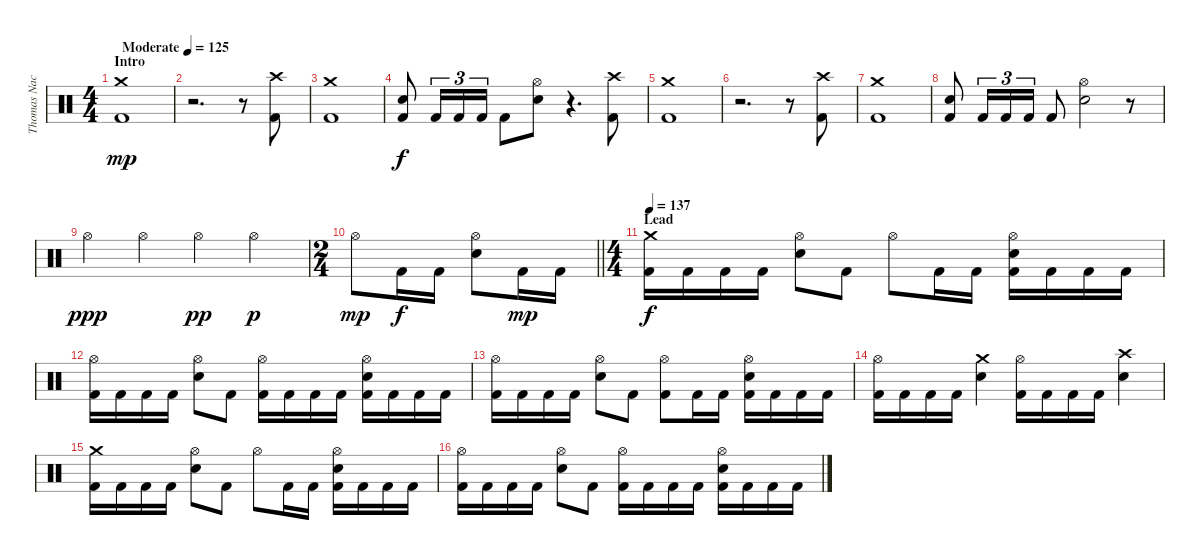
\track ("Thomas Nack" "Thomas Nac") {instrument percussion}
\staff {score}
\articulation defaults
\ts (4 4)
\section ("" "Intro")
\tempo (125 "Moderate")
\clef neutral
\ks c
("Crash medium (hit)" "Kick (hit) 2").1{dy mp} |
r.2{d} r.8 ("Crash high (hit)" "Kick (hit) 2").8 |
("Crash medium (hit)" "Kick (hit) 2").1 |
("Electric Snare (hit)" "Kick (hit) 2").8{dy f} "Kick (hit) 2".16{tu (3 2)} "Kick (hit) 2".16{tu (3 2)} "Kick (hit) 2".16{tu (3 2)} "Kick (hit) 2".8 ("Hi-Hat (open)" "Electric Snare (hit)").8 r.4{d} ("Crash high (hit)" "Kick (hit) 2").8 |
("Crash medium (hit)" "Kick (hit) 2").1 |
r.2{d} r.8 ("Crash high (hit)" "Kick (hit) 2").8 |
("Crash medium (hit)" "Kick (hit) 2").1 |
("Electric Snare (hit)" "Kick (hit) 2").8 "Kick (hit) 2".16{tu (3 2)} "Kick (hit) 2".16{tu (3 2)} "Kick (hit) 2".16{tu (3 2)} "Kick (hit) 2".8 ("Hi-Hat (open)" "Electric Snare (hit)").2 r.8 |
"Hi-Hat (open)".4{dy ppp} "Hi-Hat (open)".4 "Hi-Hat (open)".4{dy pp} "Hi-Hat (open)".4{dy p} |
\ts (2 4)
\barLineRight lightlight "Hi-Hat (open)".8{dy mp} "Kick (hit) 2".16{dy f} "Kick (hit) 2".16
("Hi-Hat (open)" "Electric Snare (hit)").8 "Kick (hit) 2".16{dy mp} "Kick (hit) 2".16 |
\ts (4 4)
\section ("" "Lead")
\tempo 137
("Crash medium (hit)" "Kick (hit) 2").16{dy f} "Kick (hit) 2".16 "Kick (hit) 2".16 "Kick (hit) 2".16 ("Hi-Hat (open)" "Electric Snare (hit)").8 "Kick (hit) 2".8 "Hi-Hat (open)".8 "Kick (hit) 2".16 "Kick (hit) 2".16 ("Hi-Hat (open)" "Electric Snare (hit)" "Kick (hit) 2").16 "Kick (hit) 2".16 "Kick (hit) 2".16 "Kick (hit) 2".16 |
("Hi-Hat (open)" "Kick (hit) 2").16 "Kick (hit) 2".16 "Kick (hit) 2".16 "Kick (hit) 2".16 ("Hi-Hat (open)" "Electric Snare (hit)").8 "Kick (hit) 2".8 ("Hi-Hat (open)" "Kick (hit) 2").16 "Kick (hit) 2".16 "Kick (hit) 2".16 "Kick (hit) 2".16 ("Hi-Hat (open)" "Electric Snare (hit)" "Kick (hit) 2").16 "Kick (hit) 2".16 "Kick (hit) 2".16 "Kick (hit) 2".16 |
("Hi-Hat (open)" "Kick (hit) 2").16 "Kick (hit) 2".16 "Kick (hit) 2".16 "Kick (hit) 2".16 ("Hi-Hat (open)" "Electric Snare (hit)").8 "Kick (hit) 2".8 ("Hi-Hat (open)" "Kick (hit) 2").8 "Kick (hit) 2".16 "Kick (hit) 2".16 ("Hi-Hat (open)" "Electric Snare (hit)" "Kick (hit) 2").16 "Kick (hit) 2".16 "Kick (hit) 2".16 "Kick (hit) 2".16 |
("Hi-Hat (open)" "Kick (hit) 2").16 "Kick (hit) 2".16 "Kick (hit) 2".16 "Kick (hit) 2".16 ("Crash medium (hit)" "Electric Snare (hit)").4 ("Hi-Hat (open)" "Kick (hit) 2").16 "Kick (hit) 2".16 "Kick (hit) 2".16 "Kick (hit) 2".16 ("Crash high (hit)" "Electric Snare (hit)").4 |
("Crash medium (hit)" "Kick (hit) 2").16 "Kick (hit) 2".16 "Kick (hit) 2".16 "Kick (hit) 2".16 ("Hi-Hat (open)" "Electric Snare (hit)").8 "Kick (hit) 2".8 "Hi-Hat (open)".8 "Kick (hit) 2".16 "Kick (hit) 2".16 ("Hi-Hat (open)" "Electric Snare (hit)" "Kick (hit) 2").16 "Kick (hit) 2".16 "Kick (hit) 2".16 "Kick (hit) 2".16 |
("Hi-Hat (open)" "Kick (hit) 2").16 "Kick (hit) 2".16 "Kick (hit) 2".16 "Kick (hit) 2".16 ("Hi-Hat (open)" "Electric Snare (hit)").8 "Kick (hit) 2".8 ("Hi-Hat (open)" "Kick (hit) 2").16 "Kick (hit) 2".16 "Kick (hit) 2".16 "Kick (hit) 2".16 ("Hi-Hat (open)" "Electric Snare (hit)" "Kick (hit) 2").16 "Kick (hit) 2".16 "Kick (hit) 2".16 "Kick (hit) 2".16
